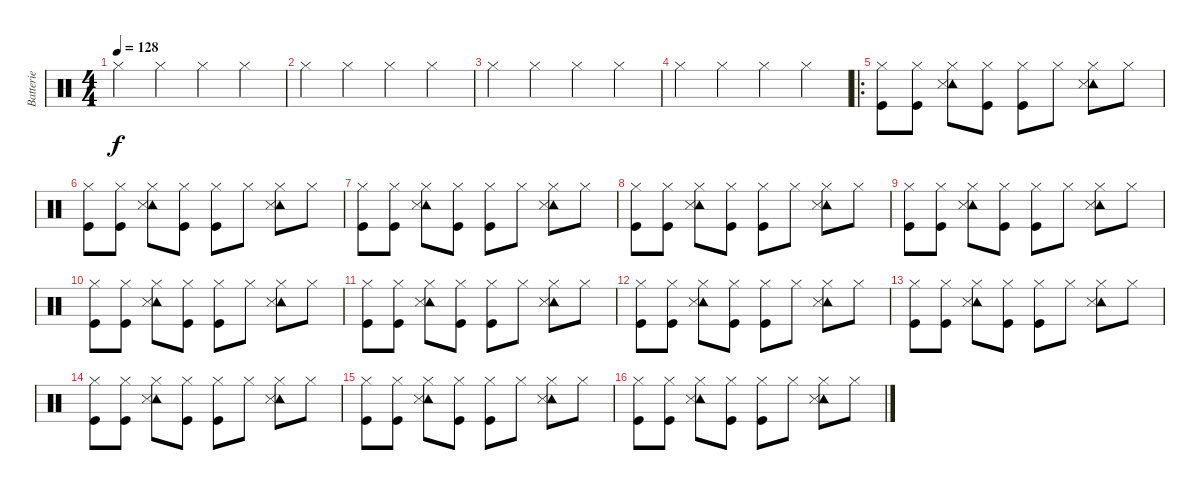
\track ("Batterie" "Batterie") {instrument percussion}
\staff {score}
\articulation defaults
\ts (4 4)
\tempo 128
\clef neutral
\ks c "Hi-Hat (closed)".4{dy f} "Hi-Hat (closed)".4 "Hi-Hat (closed)".4 "Hi-Hat (closed)".4
|
"Hi-Hat (closed)".4 "Hi-Hat (closed)".4 "Hi-Hat (closed)".4 "Hi-Hat (closed)".4 |
"Hi-Hat (closed)".4 "Hi-Hat (closed)".4 "Hi-Hat (closed)".4 "Hi-Hat (closed)".4 |
"Hi-Hat (closed)".4 "Hi-Hat (closed)".4 "Hi-Hat (closed)".4 "Hi-Hat (closed)".4 |
\ro
("Hi-Hat (closed)" "Kick (hit)").8 ("Hi-Hat (closed)" "Kick (hit)").8 ("Hi-Hat (closed)" "Tambourine (hit)" "Snare (side stick) 3").8 ("Hi-Hat (closed)" "Kick (hit)").8 ("Hi-Hat (closed)" "Kick (hit)").8 "Hi-Hat (closed)".8 ("Hi-Hat (closed)" "Tambourine (hit)" "Snare (side stick) 3").8 "Hi-Hat (closed)".8 |
("Hi-Hat (closed)" "Kick (hit)").8 ("Hi-Hat (closed)" "Kick (hit)").8 ("Hi-Hat (closed)" "Tambourine (hit)" "Snare (side stick) 3").8 ("Hi-Hat (closed)" "Kick (hit)").8 ("Hi-Hat (closed)" "Kick (hit)").8 "Hi-Hat (closed)".8 ("Hi-Hat (closed)" "Tambourine (hit)" "Snare (side stick) 3").8 "Hi-Hat (closed)".8 |
("Hi-Hat (closed)" "Kick (hit)").8 ("Hi-Hat (closed)" "Kick (hit)").8 ("Hi-Hat (closed)" "Tambourine (hit)" "Snare (side stick) 3").8 ("Hi-Hat (closed)" "Kick (hit)").8 ("Hi-Hat (closed)" "Kick (hit)").8 "Hi-Hat (closed)".8 ("Hi-Hat (closed)" "Tambourine (hit)" "Snare (side stick) 3").8 "Hi-Hat (closed)".8 |
("Hi-Hat (closed)" "Kick (hit)").8 ("Hi-Hat (closed)" "Kick (hit)").8 ("Hi-Hat (closed)" "Tambourine (hit)" "Snare (side stick) 3").8 ("Hi-Hat (closed)" "Kick (hit)").8 ("Hi-Hat (closed)" "Kick (hit)").8 "Hi-Hat (closed)".8 ("Hi-Hat (closed)" "Tambourine (hit)" "Snare (side stick) 3").8 "Hi-Hat (closed)".8 |
("Hi-Hat (closed)" "Kick (hit)").8 ("Hi-Hat (closed)" "Kick (hit)").8 ("Hi-Hat (closed)" "Tambourine (hit)" "Snare (side stick) 3").8 ("Hi-Hat (closed)" "Kick (hit)").8 ("Hi-Hat (closed)" "Kick (hit)").8 "Hi-Hat (closed)".8 ("Hi-Hat (closed)" "Tambourine (hit)" "Snare (side stick) 3").8 "Hi-Hat (closed)".8 |
("Hi-Hat (closed)" "Kick (hit)").8 ("Hi-Hat (closed)" "Kick (hit)").8 ("Hi-Hat (closed)" "Tambourine (hit)" "Snare (side stick) 3").8 ("Hi-Hat (closed)" "Kick (hit)").8 ("Hi-Hat (closed)" "Kick (hit)").8 "Hi-Hat (closed)".8 ("Hi-Hat (closed)" "Tambourine (hit)" "Snare (side stick) 3").8 "Hi-Hat (closed)".8 |
("Hi-Hat (closed)" "Kick (hit)").8 ("Hi-Hat (closed)" "Kick (hit)").8 ("Hi-Hat (closed)" "Tambourine (hit)" "Snare (side stick) 3").8 ("Hi-Hat (closed)" "Kick (hit)").8 ("Hi-Hat (closed)" "Kick (hit)").8 "Hi-Hat (closed)".8 ("Hi-Hat (closed)" "Tambourine (hit)" "Snare (side stick) 3").8 "Hi-Hat (closed)".8 |
("Hi-Hat (closed)" "Kick (hit)").8 ("Hi-Hat (closed)" "Kick (hit)").8 ("Hi-Hat (closed)" "Tambourine (hit)" "Snare (side stick) 3").8 ("Hi-Hat (closed)" "Kick (hit)").8 ("Hi-Hat (closed)" "Kick (hit)").8 "Hi-Hat (closed)".8 ("Hi-Hat (closed)" "Tambourine (hit)" "Snare (side stick) 3").8 "Hi-Hat (closed)".8 |
("Hi-Hat (closed)" "Kick (hit)").8 ("Hi-Hat (closed)" "Kick (hit)").8 ("Hi-Hat (closed)" "Tambourine (hit)" "Snare (side stick) 3").8 ("Hi-Hat (closed)" "Kick (hit)").8 ("Hi-Hat (closed)" "Kick (hit)").8 "Hi-Hat (closed)".8 ("Hi-Hat (closed)" "Tambourine (hit)" "Snare (side stick) 3").8 "Hi-Hat (closed)".8 |
("Hi-Hat (closed)" "Kick (hit)").8 ("Hi-Hat (closed)" "Kick (hit)").8 ("Hi-Hat (closed)" "Tambourine (hit)" "Snare (side stick) 3").8 ("Hi-Hat (closed)" "Kick (hit)").8 ("Hi-Hat (closed)" "Kick (hit)").8 "Hi-Hat (closed)".8 ("Hi-Hat (closed)" "Tambourine (hit)" "Snare (side stick) 3").8 "Hi-Hat (closed)".8 |
("Hi-Hat (closed)" "Kick (hit)").8 ("Hi-Hat (closed)" "Kick (hit)").8 ("Hi-Hat (closed)" "Tambourine (hit)" "Snare (side stick) 3").8 ("Hi-Hat (closed)" "Kick (hit)").8 ("Hi-Hat (closed)" "Kick (hit)").8 "Hi-Hat (closed)".8 ("Hi-Hat (closed)" "Tambourine (hit)" "Snare (side stick) 3").8 "Hi-Hat (closed)".8 |
("Hi-Hat (closed)" "Kick (hit)").8 ("Hi-Hat (closed)" "Kick (hit)").8 ("Hi-Hat (closed)" "Tambourine (hit)" "Snare (side stick) 3").8 ("Hi-Hat (closed)" "Kick (hit)").8 ("Hi-Hat (closed)" "Kick (hit)").8 "Hi-Hat (closed)".8 ("Hi-Hat (closed)" "Tambourine (hit)" "Snare (side stick) 3").8 "Hi-Hat (closed)".8
